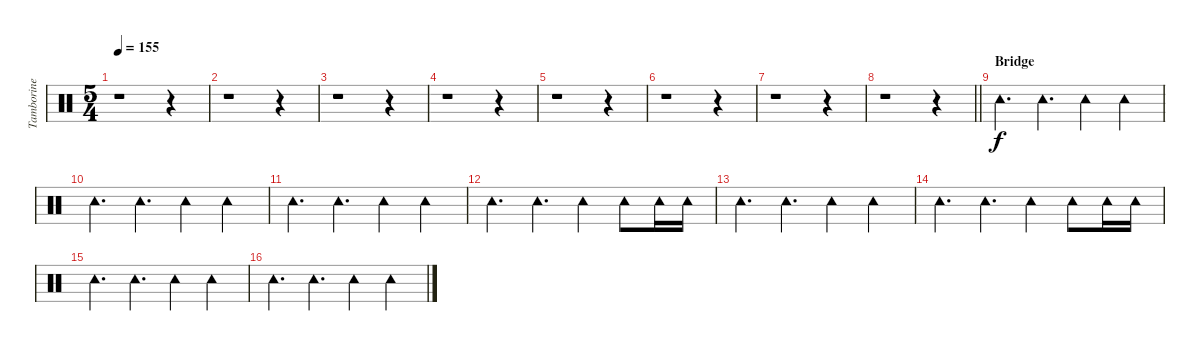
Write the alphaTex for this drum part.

\track ("Tamborine" "Tamborine") {instrument percussion}
\staff {score}
\articulation defaults
\ts (5 4)
\tempo 155
\clef neutral
\ks c
r.1{dy f} r.4 |
r.1 r.4 |
r.1 r.4 |
r.1 r.4 |
r.1 r.4 |
r.1 r.4 |
r.1 r.4 |
\barLineRight lightlight
r.1 r.4 |
\section ("" "Bridge")
"Tambourine (hit)".4{d} "Tambourine (hit)".4{d} "Tambourine (hit)".4 "Tambourine (hit)".4 |
"Tambourine (hit)".4{d} "Tambourine (hit)".4{d} "Tambourine (hit)".4 "Tambourine (hit)".4 |
"Tambourine (hit)".4{d} "Tambourine (hit)".4{d} "Tambourine (hit)".4 "Tambourine (hit)".4 |
"Tambourine (hit)".4{d} "Tambourine (hit)".4{d} "Tambourine (hit)".4 "Tambourine (hit)".8 "Tambourine (hit)".16 "Tambourine (hit)".16 |
"Tambourine (hit)".4{d} "Tambourine (hit)".4{d} "Tambourine (hit)".4 "Tambourine (hit)".4 |
"Tambourine (hit)".4{d} "Tambourine (hit)".4{d} "Tambourine (hit)".4 "Tambourine (hit)".8 "Tambourine (hit)".16 "Tambourine (hit)".16 |
"Tambourine (hit)".4{d} "Tambourine (hit)".4{d} "Tambourine (hit)".4 "Tambourine (hit)".4 |
"Tambourine (hit)".4{d} "Tambourine (hit)".4{d} "Tambourine (hit)".4 "Tambourine (hit)".4
